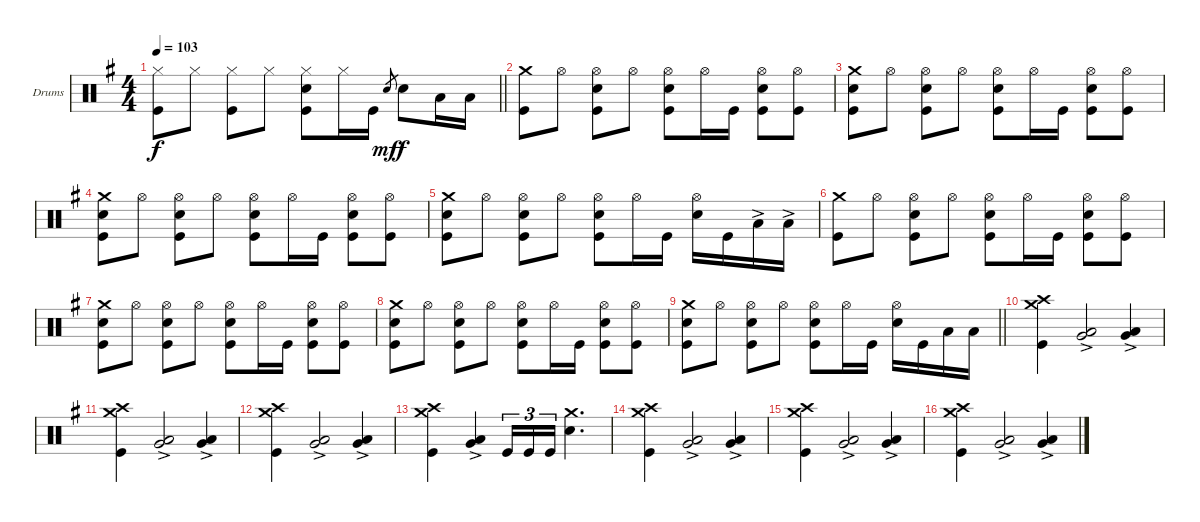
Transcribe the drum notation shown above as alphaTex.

\bracketExtendMode groupsimilarinstruments
\firstSystemTrackNameOrientation horizontal
\otherSystemsTrackNameOrientation horizontal
\track ("Drumkit" "Drums") {instrument percussion}
\staff {score}
\articulation defaults
\ts (4 4)
\tempo 103
\clef neutral
\barLineRight lightlight
\ks eminor
("Hi-Hat (closed)" "Kick (hit)").8{dy f} "Hi-Hat (closed)".8 ("Hi-Hat (closed)" "Kick (hit)").8 "Hi-Hat (closed)".8 ("Hi-Hat (closed)" "Snare (hit) 2" "Kick (hit)").8 "Hi-Hat (closed)".16 "Kick (hit)".16 "Snare (hit) 2".8{gr dy mf} "Snare (hit) 2".8{dy f} "Low Tom (hit)".16 "Low Tom (hit)".16 |
("Crash medium (hit)" "Kick (hit)").8 "Hi-Hat (open)".8 ("Hi-Hat (open)" "Snare (hit) 2" "Kick (hit)").8 "Hi-Hat (open)".8 ("Hi-Hat (open)" "Snare (hit) 2" "Kick (hit)").8 "Hi-Hat (open)".16 "Kick (hit)".16 ("Hi-Hat (open)" "Snare (hit) 2" "Kick (hit)").8 ("Hi-Hat (open)" "Kick (hit)").8 |
("Crash medium (hit)" "Snare (hit) 2" "Kick (hit)").8 "Hi-Hat (open)".8 ("Hi-Hat (open)" "Snare (hit) 2" "Kick (hit)").8 "Hi-Hat (open)".8 ("Hi-Hat (open)" "Snare (hit) 2" "Kick (hit)").8 "Hi-Hat (open)".16 "Kick (hit)".16 ("Hi-Hat (open)" "Snare (hit) 2" "Kick (hit)").8 ("Hi-Hat (open)" "Kick (hit)").8 |
("Crash medium (hit)" "Snare (hit) 2" "Kick (hit)").8 "Hi-Hat (open)".8 ("Hi-Hat (open)" "Snare (hit) 2" "Kick (hit)").8 "Hi-Hat (open)".8 ("Hi-Hat (open)" "Snare (hit) 2" "Kick (hit)").8 "Hi-Hat (open)".16 "Kick (hit)".16 ("Hi-Hat (open)" "Snare (hit) 2" "Kick (hit)").8 ("Hi-Hat (open)" "Kick (hit)").8 |
("Crash medium (hit)" "Snare (hit) 2" "Kick (hit)").8 "Hi-Hat (open)".8 ("Hi-Hat (open)" "Snare (hit) 2" "Kick (hit)").8 "Hi-Hat (open)".8 ("Hi-Hat (open)" "Snare (hit) 2" "Kick (hit)").8 "Hi-Hat (open)".16 "Kick (hit)".16 ("Hi-Hat (open)" "Snare (hit) 2").16 "Kick (hit)".16 "Low Tom (hit)"{ac}.16 "Low Tom (hit)"{ac}.16 |
("Crash medium (hit)" "Kick (hit)").8 "Hi-Hat (open)".8 ("Hi-Hat (open)" "Snare (hit) 2" "Kick (hit)").8 "Hi-Hat (open)".8 ("Hi-Hat (open)" "Snare (hit) 2" "Kick (hit)").8 "Hi-Hat (open)".16 "Kick (hit)".16 ("Hi-Hat (open)" "Snare (hit) 2" "Kick (hit)").8 ("Hi-Hat (open)" "Kick (hit)").8 |
("Crash medium (hit)" "Snare (hit) 2" "Kick (hit)").8 "Hi-Hat (open)".8 ("Hi-Hat (open)" "Snare (hit) 2" "Kick (hit)").8 "Hi-Hat (open)".8 ("Hi-Hat (open)" "Snare (hit) 2" "Kick (hit)").8 "Hi-Hat (open)".16 "Kick (hit)".16 ("Hi-Hat (open)" "Snare (hit) 2" "Kick (hit)").8 ("Hi-Hat (open)" "Kick (hit)").8 |
("Crash medium (hit)" "Snare (hit) 2" "Kick (hit)").8 "Hi-Hat (open)".8 ("Hi-Hat (open)" "Snare (hit) 2" "Kick (hit)").8 "Hi-Hat (open)".8 ("Hi-Hat (open)" "Snare (hit) 2" "Kick (hit)").8 "Hi-Hat (open)".16 "Kick (hit)".16 ("Hi-Hat (open)" "Snare (hit) 2" "Kick (hit)").8 ("Hi-Hat (open)" "Kick (hit)").8 |
\barLineRight lightlight
("Crash medium (hit)" "Snare (hit) 2" "Kick (hit)").8 "Hi-Hat (open)".8 ("Hi-Hat (open)" "Snare (hit) 2" "Kick (hit)").8 "Hi-Hat (open)".8 ("Hi-Hat (open)" "Snare (hit) 2" "Kick (hit)").8 "Hi-Hat (open)".16 "Kick (hit)".16 ("Hi-Hat (open)" "Snare (hit) 2").16 "Kick (hit)".16 "Low Tom (hit)".16 "Low Tom (hit)".16 |
("Crash medium (hit)" "Crash high (hit)" "Kick (hit)").4 ("Low Tom (hit)"{ac} "Very Low Tom (hit)"{ac}).2 ("Low Tom (hit)"{ac} "Very Low Tom (hit)"{ac}).4 |
("Crash medium (hit)" "Crash high (hit)" "Kick (hit)").4 ("Low Tom (hit)"{ac} "Very Low Tom (hit)"{ac}).2 ("Low Tom (hit)"{ac} "Very Low Tom (hit)"{ac}).4 |
("Crash medium (hit)" "Crash high (hit)" "Kick (hit)").4 ("Low Tom (hit)"{ac} "Very Low Tom (hit)"{ac}).2 ("Low Tom (hit)"{ac} "Very Low Tom (hit)"{ac}).4 |
("Crash medium (hit)" "Crash high (hit)" "Kick (hit)").4 ("Low Tom (hit)"{ac} "Very Low Tom (hit)"{ac}).4 "Kick (hit)".16{tu (3 2)} "Kick (hit)".16{tu (3 2)} "Kick (hit)".16{tu (3 2)} ("Crash medium (hit)" "Snare (hit) 2").4{d} |
("Crash medium (hit)" "Crash high (hit)" "Kick (hit)").4 ("Low Tom (hit)"{ac} "Very Low Tom (hit)"{ac}).2 ("Low Tom (hit)"{ac} "Very Low Tom (hit)"{ac}).4 |
("Crash medium (hit)" "Crash high (hit)" "Kick (hit)").4 ("Low Tom (hit)"{ac} "Very Low Tom (hit)"{ac}).2 ("Low Tom (hit)"{ac} "Very Low Tom (hit)"{ac}).4 |
("Crash medium (hit)" "Crash high (hit)" "Kick (hit)").4 ("Low Tom (hit)"{ac} "Very Low Tom (hit)"{ac}).2 ("Low Tom (hit)"{ac} "Very Low Tom (hit)"{ac}).4
